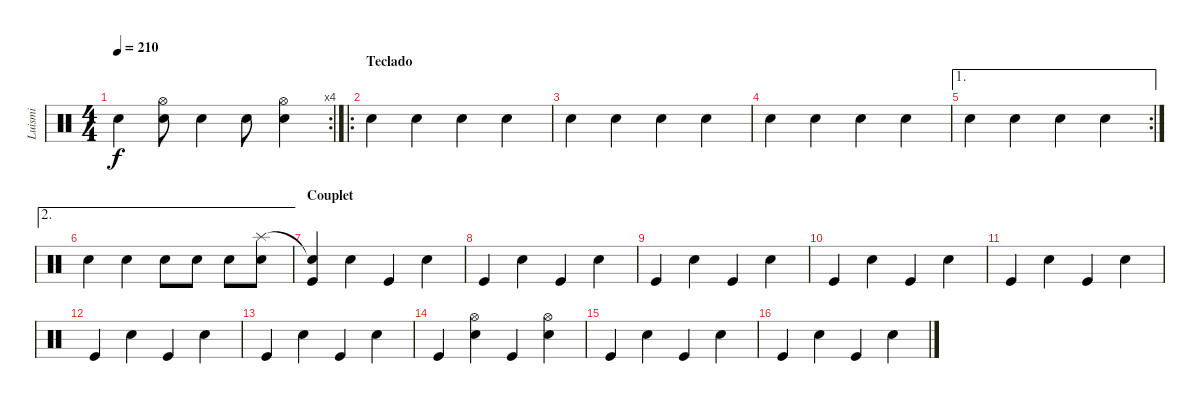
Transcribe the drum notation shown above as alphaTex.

\track ("Luismi" "Luismi") {instrument percussion}
\staff {score}
\articulation defaults
\rc 4
\ts (4 4)
\tempo 210
\clef neutral
\ks c "Snare (hit) 2".4{dy f}
("Electric Snare (hit)" "Hi-Hat (open)").8 "Snare (hit) 2".4 "Snare (hit) 2".8 ("Electric Snare (hit)" "Hi-Hat (open)").4 |
\ro
\section ("" "Teclado")
"Snare (hit) 2".4 "Electric Snare (hit)".4 "Snare (hit) 2".4 "Electric Snare (hit)".4 |
"Snare (hit) 2".4 "Electric Snare (hit)".4 "Snare (hit) 2".4 "Electric Snare (hit)".4 |
"Snare (hit) 2".4 "Electric Snare (hit)".4 "Snare (hit) 2".4 "Electric Snare (hit)".4 |
\ae 1
\rc 2 "Snare (hit) 2".4 "Electric Snare (hit)".4 "Snare (hit) 2".4 "Electric Snare (hit)".4
|
\ae 2 "Electric Snare (hit)".4 "Electric Snare (hit)".4 "Electric Snare (hit)".8 "Snare (hit) 2".8 "Electric Snare (hit)".8
("Snare (hit) 2" "Splash (hit)").8 |
\section ("" "Couplet")
("Kick (hit)" "Snare (hit)"{t}).4 "Electric Snare (hit)".4 "Kick (hit)".4 "Electric Snare (hit)".4 |
"Kick (hit)".4 "Electric Snare (hit)".4 "Kick (hit)".4 "Electric Snare (hit)".4 |
"Kick (hit)".4 "Electric Snare (hit)".4 "Kick (hit)".4 "Electric Snare (hit)".4 |
"Kick (hit)".4 "Electric Snare (hit)".4 "Kick (hit)".4 "Electric Snare (hit)".4 |
"Kick (hit)".4 "Electric Snare (hit)".4 "Kick (hit)".4 "Electric Snare (hit)".4 |
"Kick (hit)".4 "Electric Snare (hit)".4 "Kick (hit)".4 "Electric Snare (hit)".4 |
"Kick (hit)".4 "Electric Snare (hit)".4 "Kick (hit)".4 "Electric Snare (hit)".4 |
"Kick (hit)".4 ("Electric Snare (hit)" "Hi-Hat (open)").4 "Kick (hit)".4 ("Electric Snare (hit)" "Hi-Hat (open)").4 |
"Kick (hit)".4 "Electric Snare (hit)".4 "Kick (hit)".4 "Electric Snare (hit)".4 |
"Kick (hit)".4 "Electric Snare (hit)".4 "Kick (hit)".4 "Electric Snare (hit)".4
